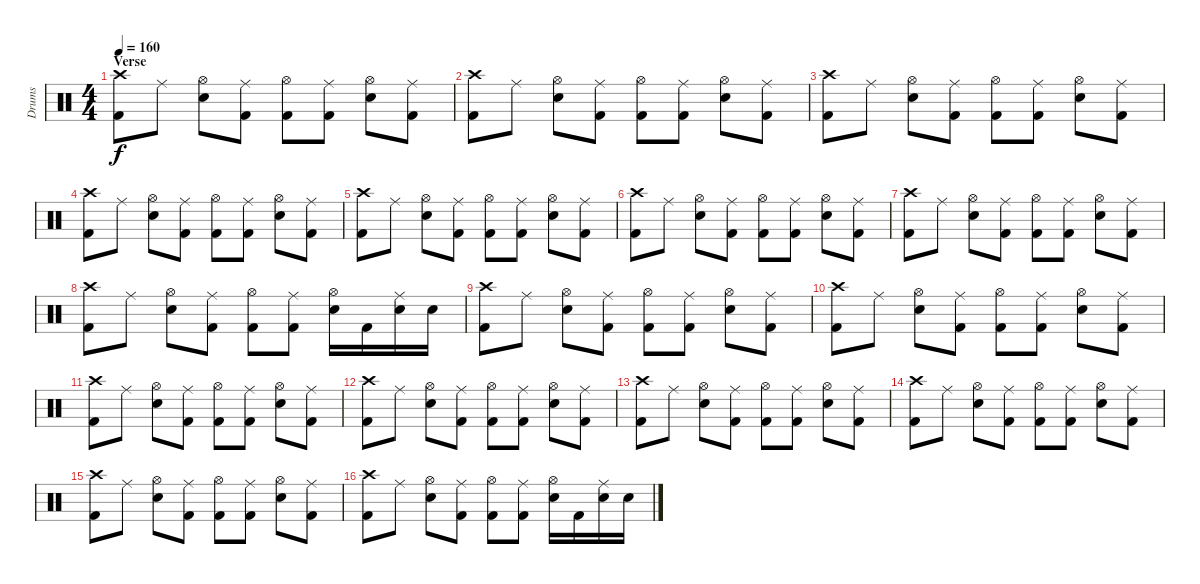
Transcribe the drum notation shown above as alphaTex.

\track ("Drums" "Drums") {instrument percussion}
\staff {score}
\articulation defaults
\ts (4 4)
\section ("" "Verse")
\tempo 160
\clef neutral
\ks c
("Kick (hit) 2" "Crash high (hit)").8{dy f} "Ride (middle)".8 ("Electric Snare (hit)" "Hi-Hat (open)").8 ("Kick (hit) 2" "Ride (middle)").8 ("Kick (hit) 2" "Hi-Hat (open)").8 ("Kick (hit) 2" "Ride (middle)").8 ("Electric Snare (hit)" "Hi-Hat (open)").8 ("Kick (hit) 2" "Ride (middle)").8 |
("Kick (hit) 2" "Crash high (hit)").8 "Ride (middle)".8 ("Electric Snare (hit)" "Hi-Hat (open)").8 ("Kick (hit) 2" "Ride (middle)").8 ("Kick (hit) 2" "Hi-Hat (open)").8 ("Kick (hit) 2" "Ride (middle)").8 ("Electric Snare (hit)" "Hi-Hat (open)").8 ("Kick (hit) 2" "Ride (middle)").8 |
("Kick (hit) 2" "Crash high (hit)").8 "Ride (middle)".8 ("Electric Snare (hit)" "Hi-Hat (open)").8 ("Kick (hit) 2" "Ride (middle)").8 ("Kick (hit) 2" "Hi-Hat (open)").8 ("Kick (hit) 2" "Ride (middle)").8 ("Electric Snare (hit)" "Hi-Hat (open)").8 ("Kick (hit) 2" "Ride (middle)").8 |
("Kick (hit) 2" "Crash high (hit)").8 "Ride (middle)".8 ("Electric Snare (hit)" "Hi-Hat (open)").8 ("Kick (hit) 2" "Ride (middle)").8 ("Kick (hit) 2" "Hi-Hat (open)").8 ("Kick (hit) 2" "Ride (middle)").8 ("Electric Snare (hit)" "Hi-Hat (open)").8 ("Kick (hit) 2" "Ride (middle)").8 |
("Kick (hit) 2" "Crash high (hit)").8 "Ride (middle)".8 ("Electric Snare (hit)" "Hi-Hat (open)").8 ("Kick (hit) 2" "Ride (middle)").8 ("Kick (hit) 2" "Hi-Hat (open)").8 ("Kick (hit) 2" "Ride (middle)").8 ("Electric Snare (hit)" "Hi-Hat (open)").8 ("Kick (hit) 2" "Ride (middle)").8 |
("Kick (hit) 2" "Crash high (hit)").8 "Ride (middle)".8 ("Electric Snare (hit)" "Hi-Hat (open)").8 ("Kick (hit) 2" "Ride (middle)").8 ("Kick (hit) 2" "Hi-Hat (open)").8 ("Kick (hit) 2" "Ride (middle)").8 ("Electric Snare (hit)" "Hi-Hat (open)").8 ("Kick (hit) 2" "Ride (middle)").8 |
("Kick (hit) 2" "Crash high (hit)").8 "Ride (middle)".8 ("Electric Snare (hit)" "Hi-Hat (open)").8 ("Kick (hit) 2" "Ride (middle)").8 ("Kick (hit) 2" "Hi-Hat (open)").8 ("Kick (hit) 2" "Ride (middle)").8 ("Electric Snare (hit)" "Hi-Hat (open)").8 ("Kick (hit) 2" "Ride (middle)").8 |
("Kick (hit) 2" "Crash high (hit)").8 "Ride (middle)".8 ("Electric Snare (hit)" "Hi-Hat (open)").8 ("Kick (hit) 2" "Ride (middle)").8 ("Kick (hit) 2" "Hi-Hat (open)").8 ("Kick (hit) 2" "Ride (middle)").8 ("Electric Snare (hit)" "Hi-Hat (open)").16 "Kick (hit) 2".16 ("Electric Snare (hit)" "Ride (middle)").16 "Snare (hit) 2".16 |
("Kick (hit) 2" "Crash high (hit)").8 "Ride (middle)".8 ("Electric Snare (hit)" "Hi-Hat (open)").8 ("Kick (hit) 2" "Ride (middle)").8 ("Kick (hit) 2" "Hi-Hat (open)").8 ("Kick (hit) 2" "Ride (middle)").8 ("Electric Snare (hit)" "Hi-Hat (open)").8 ("Kick (hit) 2" "Ride (middle)").8 |
("Kick (hit) 2" "Crash high (hit)").8 "Ride (middle)".8 ("Electric Snare (hit)" "Hi-Hat (open)").8 ("Kick (hit) 2" "Ride (middle)").8 ("Kick (hit) 2" "Hi-Hat (open)").8 ("Kick (hit) 2" "Ride (middle)").8 ("Electric Snare (hit)" "Hi-Hat (open)").8 ("Kick (hit) 2" "Ride (middle)").8 |
("Kick (hit) 2" "Crash high (hit)").8 "Ride (middle)".8 ("Electric Snare (hit)" "Hi-Hat (open)").8 ("Kick (hit) 2" "Ride (middle)").8 ("Kick (hit) 2" "Hi-Hat (open)").8 ("Kick (hit) 2" "Ride (middle)").8 ("Electric Snare (hit)" "Hi-Hat (open)").8 ("Kick (hit) 2" "Ride (middle)").8 |
("Kick (hit) 2" "Crash high (hit)").8 "Ride (middle)".8 ("Electric Snare (hit)" "Hi-Hat (open)").8 ("Kick (hit) 2" "Ride (middle)").8 ("Kick (hit) 2" "Hi-Hat (open)").8 ("Kick (hit) 2" "Ride (middle)").8 ("Electric Snare (hit)" "Hi-Hat (open)").8 ("Kick (hit) 2" "Ride (middle)").8 |
("Kick (hit) 2" "Crash high (hit)").8 "Ride (middle)".8 ("Electric Snare (hit)" "Hi-Hat (open)").8 ("Kick (hit) 2" "Ride (middle)").8 ("Kick (hit) 2" "Hi-Hat (open)").8 ("Kick (hit) 2" "Ride (middle)").8 ("Electric Snare (hit)" "Hi-Hat (open)").8 ("Kick (hit) 2" "Ride (middle)").8 |
("Kick (hit) 2" "Crash high (hit)").8 "Ride (middle)".8 ("Electric Snare (hit)" "Hi-Hat (open)").8 ("Kick (hit) 2" "Ride (middle)").8 ("Kick (hit) 2" "Hi-Hat (open)").8 ("Kick (hit) 2" "Ride (middle)").8 ("Electric Snare (hit)" "Hi-Hat (open)").8 ("Kick (hit) 2" "Ride (middle)").8 |
("Kick (hit) 2" "Crash high (hit)").8 "Ride (middle)".8 ("Electric Snare (hit)" "Hi-Hat (open)").8 ("Kick (hit) 2" "Ride (middle)").8 ("Kick (hit) 2" "Hi-Hat (open)").8 ("Kick (hit) 2" "Ride (middle)").8 ("Electric Snare (hit)" "Hi-Hat (open)").8 ("Kick (hit) 2" "Ride (middle)").8 |
("Kick (hit) 2" "Crash high (hit)").8 "Ride (middle)".8 ("Electric Snare (hit)" "Hi-Hat (open)").8 ("Kick (hit) 2" "Ride (middle)").8 ("Kick (hit) 2" "Hi-Hat (open)").8 ("Kick (hit) 2" "Ride (middle)").8 ("Electric Snare (hit)" "Hi-Hat (open)").16 "Kick (hit) 2".16 ("Electric Snare (hit)" "Ride (middle)").16 "Snare (hit) 2".16
